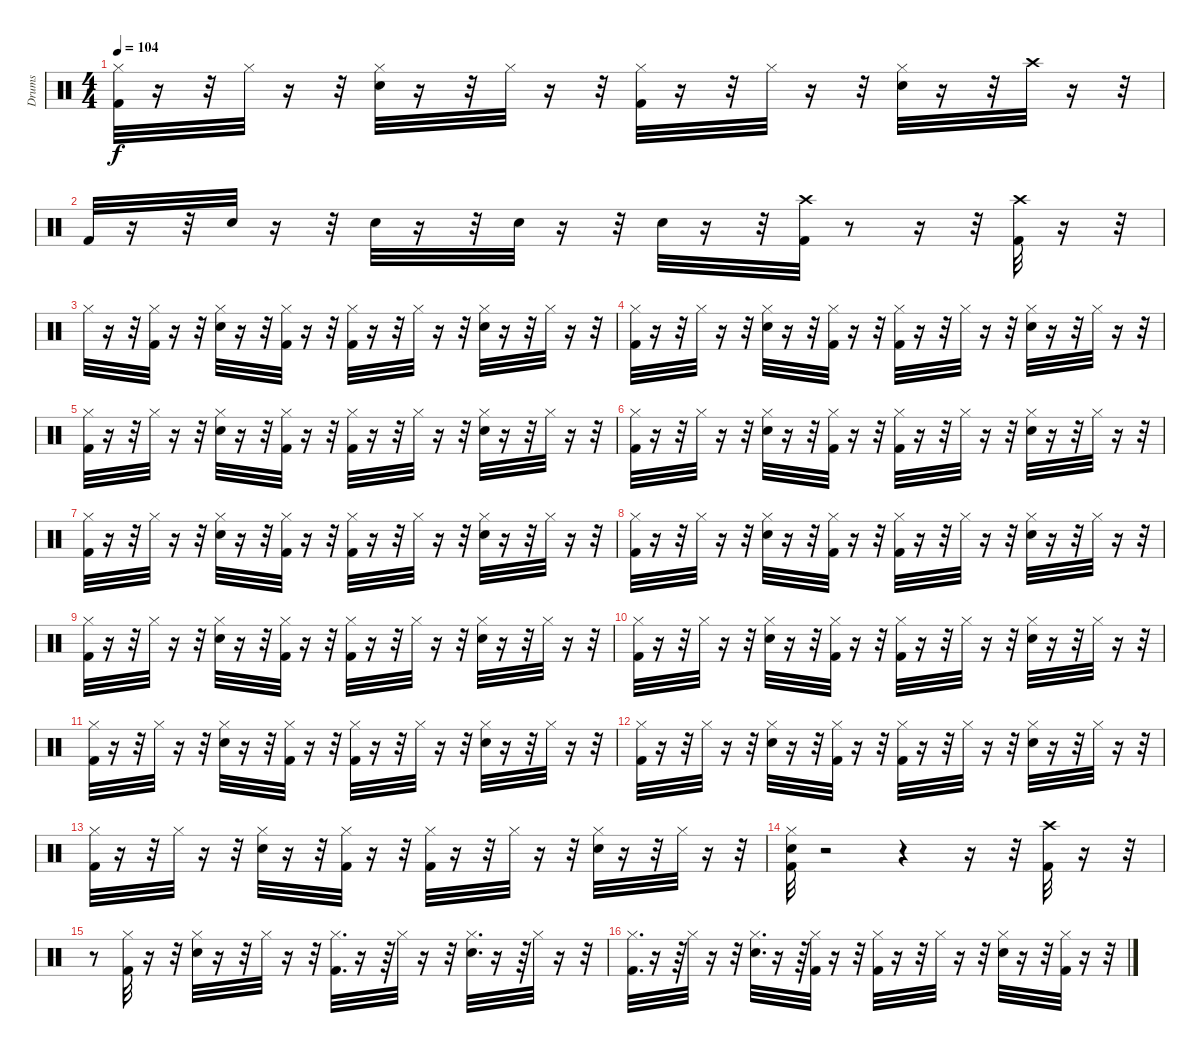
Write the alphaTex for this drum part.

\track ("Drums" "Drums") {instrument percussion}
\staff {score}
\articulation defaults
\ts (4 4)
\tempo 104
\clef neutral
\ks c
("Hi-Hat (closed)" "Kick (hit) 2").32{dy f} r.16 r.32 "Hi-Hat (closed)".32 r.16 r.32 ("Hi-Hat (closed)" "Snare (hit) 2").32 r.16 r.32 "Hi-Hat (closed)".32 r.16 r.32 ("Hi-Hat (closed)" "Kick (hit) 2").32 r.16 r.32 "Hi-Hat (closed)".32 r.16 r.32 ("Hi-Hat (closed)" "Snare (hit) 2").32 r.16 r.32 "Crash high (hit)".32 r.16 r.32 |
"Kick (hit) 2".32 r.16 r.32 "Snare (hit) 2".32 r.16 r.32 "Snare (hit) 2".32 r.16 r.32 "Snare (hit) 2".32 r.16 r.32 "Snare (hit) 2".32 r.16 r.32 ("Crash high (hit)" "Kick (hit) 2").32 r.8 r.16 r.32 ("Crash high (hit)" "Kick (hit) 2").32 r.16 r.32 |
"Hi-Hat (closed)".32 r.16 r.32 ("Hi-Hat (closed)" "Kick (hit) 2").32 r.16 r.32 ("Hi-Hat (closed)" "Snare (hit) 2").32 r.16 r.32 ("Hi-Hat (closed)" "Kick (hit) 2").32 r.16 r.32 ("Hi-Hat (closed)" "Kick (hit) 2").32 r.16 r.32 "Hi-Hat (closed)".32 r.16 r.32 ("Hi-Hat (closed)" "Snare (hit) 2").32 r.16 r.32 "Hi-Hat (closed)".32 r.16 r.32 |
("Hi-Hat (closed)" "Kick (hit) 2").32 r.16 r.32 "Hi-Hat (closed)".32 r.16 r.32 ("Hi-Hat (closed)" "Snare (hit) 2").32 r.16 r.32 ("Hi-Hat (closed)" "Kick (hit) 2").32 r.16 r.32 ("Hi-Hat (closed)" "Kick (hit) 2").32 r.16 r.32 "Hi-Hat (closed)".32 r.16 r.32 ("Hi-Hat (closed)" "Snare (hit) 2").32 r.16 r.32 "Hi-Hat (closed)".32 r.16 r.32 |
("Hi-Hat (closed)" "Kick (hit) 2").32 r.16 r.32 "Hi-Hat (closed)".32 r.16 r.32 ("Hi-Hat (closed)" "Snare (hit) 2").32 r.16 r.32 ("Hi-Hat (closed)" "Kick (hit) 2").32 r.16 r.32 ("Hi-Hat (closed)" "Kick (hit) 2").32 r.16 r.32 "Hi-Hat (closed)".32 r.16 r.32 ("Hi-Hat (closed)" "Snare (hit) 2").32 r.16 r.32 "Hi-Hat (closed)".32 r.16 r.32 |
("Hi-Hat (closed)" "Kick (hit) 2").32 r.16 r.32 "Hi-Hat (closed)".32 r.16 r.32 ("Hi-Hat (closed)" "Snare (hit) 2").32 r.16 r.32 ("Hi-Hat (closed)" "Kick (hit) 2").32 r.16 r.32 ("Hi-Hat (closed)" "Kick (hit) 2").32 r.16 r.32 "Hi-Hat (closed)".32 r.16 r.32 ("Hi-Hat (closed)" "Snare (hit) 2").32 r.16 r.32 "Hi-Hat (closed)".32 r.16 r.32 |
("Hi-Hat (closed)" "Kick (hit) 2").32 r.16 r.32 "Hi-Hat (closed)".32 r.16 r.32 ("Hi-Hat (closed)" "Snare (hit) 2").32 r.16 r.32 ("Hi-Hat (closed)" "Kick (hit) 2").32 r.16 r.32 ("Hi-Hat (closed)" "Kick (hit) 2").32 r.16 r.32 "Hi-Hat (closed)".32 r.16 r.32 ("Hi-Hat (closed)" "Snare (hit) 2").32 r.16 r.32 "Hi-Hat (closed)".32 r.16 r.32 |
("Hi-Hat (closed)" "Kick (hit) 2").32 r.16 r.32 "Hi-Hat (closed)".32 r.16 r.32 ("Hi-Hat (closed)" "Snare (hit) 2").32 r.16 r.32 ("Hi-Hat (closed)" "Kick (hit) 2").32 r.16 r.32 ("Hi-Hat (closed)" "Kick (hit) 2").32 r.16 r.32 "Hi-Hat (closed)".32 r.16 r.32 ("Hi-Hat (closed)" "Snare (hit) 2").32 r.16 r.32 "Hi-Hat (closed)".32 r.16 r.32 |
("Hi-Hat (closed)" "Kick (hit) 2").32 r.16 r.32 "Hi-Hat (closed)".32 r.16 r.32 ("Hi-Hat (closed)" "Snare (hit) 2").32 r.16 r.32 ("Hi-Hat (closed)" "Kick (hit) 2").32 r.16 r.32 ("Hi-Hat (closed)" "Kick (hit) 2").32 r.16 r.32 "Hi-Hat (closed)".32 r.16 r.32 ("Hi-Hat (closed)" "Snare (hit) 2").32 r.16 r.32 "Hi-Hat (closed)".32 r.16 r.32 |
("Hi-Hat (closed)" "Kick (hit) 2").32 r.16 r.32 "Hi-Hat (closed)".32 r.16 r.32 ("Hi-Hat (closed)" "Snare (hit) 2").32 r.16 r.32 ("Hi-Hat (closed)" "Kick (hit) 2").32 r.16 r.32 ("Hi-Hat (closed)" "Kick (hit) 2").32 r.16 r.32 "Hi-Hat (closed)".32 r.16 r.32 ("Hi-Hat (closed)" "Snare (hit) 2").32 r.16 r.32 "Hi-Hat (closed)".32 r.16 r.32 |
("Hi-Hat (closed)" "Kick (hit) 2").32 r.16 r.32 "Hi-Hat (closed)".32 r.16 r.32 ("Hi-Hat (closed)" "Snare (hit) 2").32 r.16 r.32 ("Hi-Hat (closed)" "Kick (hit) 2").32 r.16 r.32 ("Hi-Hat (closed)" "Kick (hit) 2").32 r.16 r.32 "Hi-Hat (closed)".32 r.16 r.32 ("Hi-Hat (closed)" "Snare (hit) 2").32 r.16 r.32 "Hi-Hat (closed)".32 r.16 r.32 |
("Hi-Hat (closed)" "Kick (hit) 2").32 r.16 r.32 "Hi-Hat (closed)".32 r.16 r.32 ("Hi-Hat (closed)" "Snare (hit) 2").32 r.16 r.32 ("Hi-Hat (closed)" "Kick (hit) 2").32 r.16 r.32 ("Hi-Hat (closed)" "Kick (hit) 2").32 r.16 r.32 "Hi-Hat (closed)".32 r.16 r.32 ("Hi-Hat (closed)" "Snare (hit) 2").32 r.16 r.32 "Hi-Hat (closed)".32 r.16 r.32 |
("Hi-Hat (closed)" "Kick (hit) 2").32 r.16 r.32 "Hi-Hat (closed)".32 r.16 r.32 ("Hi-Hat (closed)" "Snare (hit) 2").32 r.16 r.32 ("Hi-Hat (closed)" "Kick (hit) 2").32 r.16 r.32 ("Hi-Hat (closed)" "Kick (hit) 2").32 r.16 r.32 "Hi-Hat (closed)".32 r.16 r.32 ("Hi-Hat (closed)" "Snare (hit) 2").32 r.16 r.32 "Hi-Hat (closed)".32 r.16 r.32 |
("Hi-Hat (closed)" "Snare (hit) 2" "Kick (hit) 2").32 r.2 r.4 r.16 r.32 ("Crash high (hit)" "Kick (hit) 2").32 r.16 r.32 |
r.8 ("Hi-Hat (closed)" "Kick (hit) 2").32 r.16 r.32 ("Hi-Hat (closed)" "Snare (hit) 2").32 r.16 r.32 "Hi-Hat (closed)".32 r.16 r.32 ("Hi-Hat (closed)" "Kick (hit) 2").32{d} r.16 r.64 "Hi-Hat (closed)".32 r.16 r.32 ("Hi-Hat (closed)" "Snare (hit) 2").32{d} r.16 r.64 "Hi-Hat (closed)".32 r.16 r.32 |
("Hi-Hat (closed)" "Kick (hit) 2").32{d} r.16 r.64 "Hi-Hat (closed)".32 r.16 r.32 ("Hi-Hat (closed)" "Snare (hit) 2").32{d} r.16 r.64 ("Hi-Hat (closed)" "Kick (hit) 2").32 r.16 r.32 ("Hi-Hat (closed)" "Kick (hit) 2").32 r.16 r.32 "Hi-Hat (closed)".32 r.16 r.32 ("Hi-Hat (closed)" "Snare (hit) 2").32 r.16 r.32 ("Hi-Hat (closed)" "Kick (hit) 2").32 r.16 r.32
